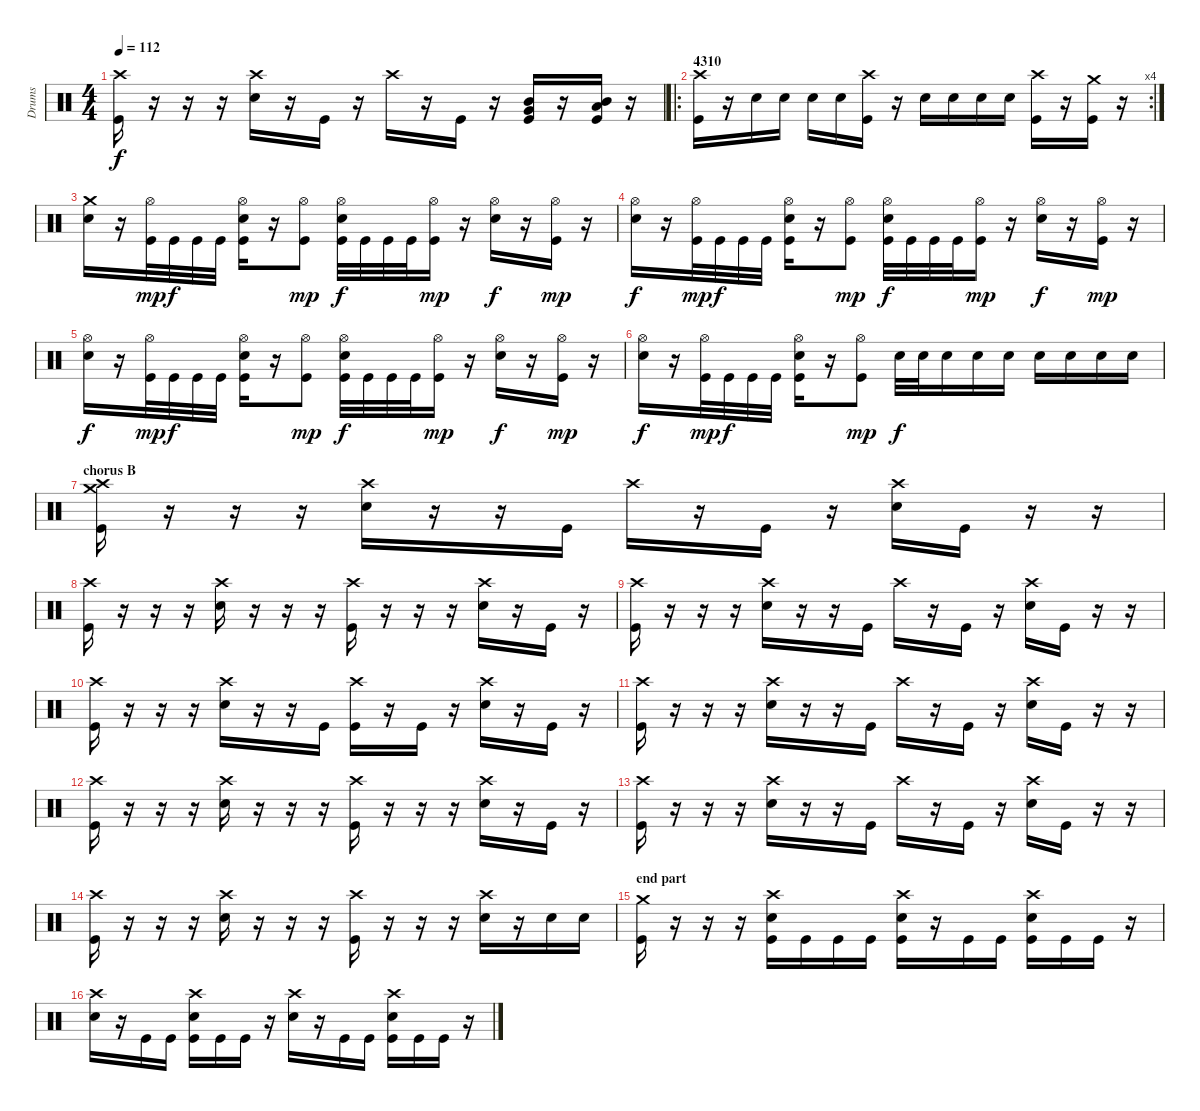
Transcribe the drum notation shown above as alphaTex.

\track ("Drums" "Drums") {instrument percussion}
\staff {score}
\articulation defaults
\ts (4 4)
\tempo 112
\clef neutral
\ks c
("Crash high (hit)" "Kick (hit)").16{dy f} r.16 r.16 r.16 ("Crash high (hit)" "Snare (hit) 2").16 r.16 "Kick (hit)".16 r.16 "Crash high (hit)".16 r.16 "Kick (hit)".16 r.16 ("Mid Tom (hit)" "Very Low Tom (hit)" "Kick (hit)").16{bu 60} r.16 ("Mid Tom (hit)" "Low Floor Tom (hit)" "Kick (hit)").16{bu 60} r.16 |
\ro
\rc 4
\section ("" "4310")
("Crash high (hit)" "Kick (hit)").16 r.16 "Snare (hit) 2".16 "Snare (hit) 2".16 "Snare (hit) 2".16 "Snare (hit) 2".16 ("Crash high (hit)" "Kick (hit)").16 r.16 "Snare (hit) 2".16 "Snare (hit) 2".16 "Snare (hit) 2".16 "Snare (hit) 2".16 ("Crash high (hit)" "Kick (hit)").16 r.16 ("Crash medium (hit)" "Kick (hit)").16 r.16 |
("Crash medium (hit)" "Snare (hit) 2").16 r.16 ("Hi-Hat (open)" "Kick (hit)").32{dy mp} "Kick (hit)".32{dy f} "Kick (hit)".32 "Kick (hit)".32 ("Hi-Hat (open)" "Snare (hit) 2" "Kick (hit)").16 r.16 ("Hi-Hat (open)" "Kick (hit)").8{dy mp} ("Hi-Hat (open)" "Snare (hit) 2" "Kick (hit)").32{dy f} "Kick (hit)".32 "Kick (hit)".32 "Kick (hit)".32 ("Hi-Hat (open)" "Kick (hit)").16{dy mp} r.16 ("Hi-Hat (open)" "Snare (hit) 2").16{dy f} r.16 ("Hi-Hat (open)" "Kick (hit)").16{dy mp} r.16 |
("Hi-Hat (open)" "Snare (hit) 2").16{dy f} r.16 ("Hi-Hat (open)" "Kick (hit)").32{dy mp} "Kick (hit)".32{dy f} "Kick (hit)".32 "Kick (hit)".32 ("Hi-Hat (open)" "Snare (hit) 2" "Kick (hit)").16 r.16 ("Hi-Hat (open)" "Kick (hit)").8{dy mp} ("Hi-Hat (open)" "Snare (hit) 2" "Kick (hit)").32{dy f} "Kick (hit)".32 "Kick (hit)".32 "Kick (hit)".32 ("Hi-Hat (open)" "Kick (hit)").16{dy mp} r.16 ("Hi-Hat (open)" "Snare (hit) 2").16{dy f} r.16 ("Hi-Hat (open)" "Kick (hit)").16{dy mp} r.16 |
("Hi-Hat (open)" "Snare (hit) 2").16{dy f} r.16 ("Hi-Hat (open)" "Kick (hit)").32{dy mp} "Kick (hit)".32{dy f} "Kick (hit)".32 "Kick (hit)".32 ("Hi-Hat (open)" "Snare (hit) 2" "Kick (hit)").16 r.16 ("Hi-Hat (open)" "Kick (hit)").8{dy mp} ("Hi-Hat (open)" "Snare (hit) 2" "Kick (hit)").32{dy f} "Kick (hit)".32 "Kick (hit)".32 "Kick (hit)".32 ("Hi-Hat (open)" "Kick (hit)").16{dy mp} r.16 ("Hi-Hat (open)" "Snare (hit) 2").16{dy f} r.16 ("Hi-Hat (open)" "Kick (hit)").16{dy mp} r.16 |
("Hi-Hat (open)" "Snare (hit) 2").16{dy f} r.16 ("Hi-Hat (open)" "Kick (hit)").32{dy mp} "Kick (hit)".32{dy f} "Kick (hit)".32 "Kick (hit)".32 ("Hi-Hat (open)" "Snare (hit) 2" "Kick (hit)").16 r.16 ("Hi-Hat (open)" "Kick (hit)").8{dy mp} "Snare (hit) 2".32{dy f} "Snare (hit) 2".32 "Snare (hit) 2".16 "Snare (hit) 2".16 "Snare (hit) 2".16 "Snare (hit) 2".16 "Snare (hit) 2".16 "Snare (hit) 2".16 "Snare (hit) 2".16 |
\section ("" "chorus B")
("Crash high (hit)" "Crash medium (hit)" "Kick (hit)").16 r.16 r.16 r.16 ("Crash high (hit)" "Snare (hit) 2").16 r.16 r.16 "Kick (hit)".16 "Crash high (hit)".16 r.16 "Kick (hit)".16 r.16 ("Crash high (hit)" "Snare (hit) 2").16 "Kick (hit)".16 r.16 r.16 |
("Crash high (hit)" "Kick (hit)").16 r.16 r.16 r.16 ("Crash high (hit)" "Snare (hit) 2").16 r.16 r.16 r.16 ("Crash high (hit)" "Kick (hit)").16 r.16 r.16 r.16 ("Crash high (hit)" "Snare (hit) 2").16 r.16 "Kick (hit)".16 r.16 |
("Crash high (hit)" "Kick (hit)").16 r.16 r.16 r.16 ("Crash high (hit)" "Snare (hit) 2").16 r.16 r.16 "Kick (hit)".16 "Crash high (hit)".16 r.16 "Kick (hit)".16 r.16 ("Crash high (hit)" "Snare (hit) 2").16 "Kick (hit)".16 r.16 r.16 |
("Crash high (hit)" "Kick (hit)").16 r.16 r.16 r.16 ("Crash high (hit)" "Snare (hit) 2").16 r.16 r.16 "Kick (hit)".16 ("Crash high (hit)" "Kick (hit)").16 r.16 "Kick (hit)".16 r.16 ("Crash high (hit)" "Snare (hit) 2").16 r.16 "Kick (hit)".16 r.16 |
("Crash high (hit)" "Kick (hit)").16 r.16 r.16 r.16 ("Crash high (hit)" "Snare (hit) 2").16 r.16 r.16 "Kick (hit)".16 "Crash high (hit)".16 r.16 "Kick (hit)".16 r.16 ("Crash high (hit)" "Snare (hit) 2").16 "Kick (hit)".16 r.16 r.16 |
("Crash high (hit)" "Kick (hit)").16 r.16 r.16 r.16 ("Crash high (hit)" "Snare (hit) 2").16 r.16 r.16 r.16 ("Crash high (hit)" "Kick (hit)").16 r.16 r.16 r.16 ("Crash high (hit)" "Snare (hit) 2").16 r.16 "Kick (hit)".16 r.16 |
("Crash high (hit)" "Kick (hit)").16 r.16 r.16 r.16 ("Crash high (hit)" "Snare (hit) 2").16 r.16 r.16 "Kick (hit)".16 "Crash high (hit)".16 r.16 "Kick (hit)".16 r.16 ("Crash high (hit)" "Snare (hit) 2").16 "Kick (hit)".16 r.16 r.16 |
("Crash high (hit)" "Kick (hit)").16 r.16 r.16 r.16 ("Crash high (hit)" "Snare (hit) 2").16 r.16 r.16 r.16 ("Crash high (hit)" "Kick (hit)").16 r.16 r.16 r.16 ("Crash high (hit)" "Snare (hit) 2").16 r.16 "Snare (hit) 2".16 "Snare (hit) 2".16 |
\section ("" "end part")
("Crash medium (hit)" "Kick (hit)").16 r.16 r.16 r.16 ("Crash high (hit)" "Snare (hit) 2" "Kick (hit)").16 "Kick (hit)".16 "Kick (hit)".16 "Kick (hit)".16 ("Crash high (hit)" "Snare (hit) 2" "Kick (hit)").16 r.16 "Kick (hit)".16 "Kick (hit)".16 ("Crash high (hit)" "Snare (hit) 2" "Kick (hit)").16 "Kick (hit)".16 "Kick (hit)".16 r.16 |
("Crash high (hit)" "Snare (hit) 2").16 r.16 "Kick (hit)".16 "Kick (hit)".16 ("Crash high (hit)" "Snare (hit) 2" "Kick (hit)").16 "Kick (hit)".16 "Kick (hit)".16 r.16 ("Crash high (hit)" "Snare (hit) 2").16 r.16 "Kick (hit)".16 "Kick (hit)".16 ("Crash high (hit)" "Snare (hit) 2" "Kick (hit)").16 "Kick (hit)".16 "Kick (hit)".16 r.16
